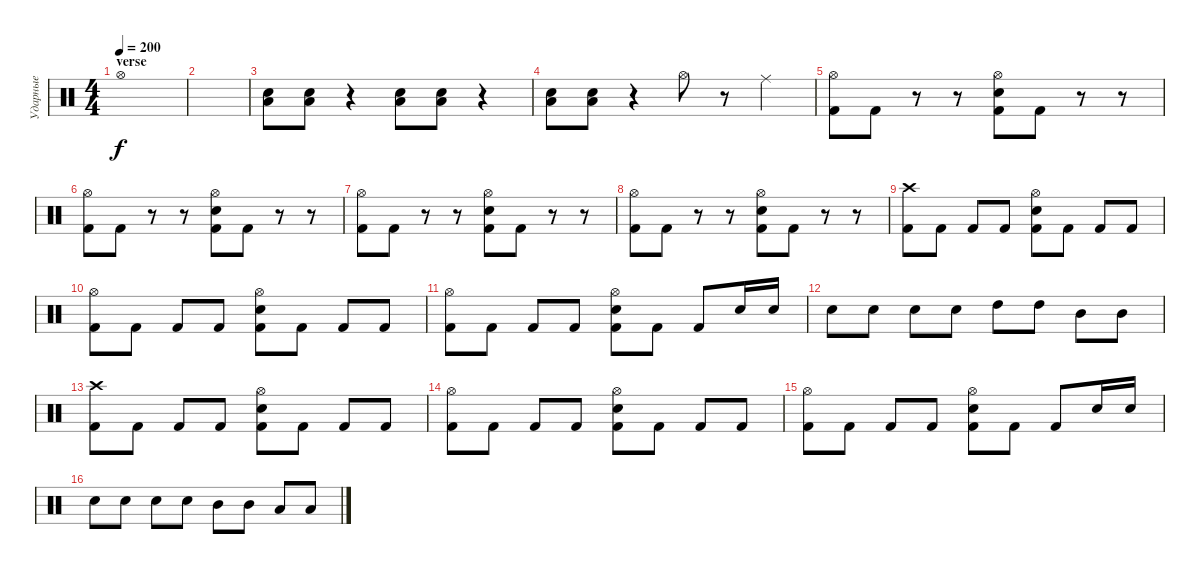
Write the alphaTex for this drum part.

\track ("Ударные" "Ударные") {instrument percussion}
\staff {score}
\articulation defaults
\ts (4 4)
\section ("" "verse")
\tempo 200
\clef neutral
\ks c "Hi-Hat (open)".1{dy f}
|
|
("Electric Snare (hit)" "Low Tom (hit)").8 ("Electric Snare (hit)" "Low Tom (hit)").8 r.4 ("Electric Snare (hit)" "Low Tom (hit)").8 ("Electric Snare (hit)" "Low Tom (hit)").8 r.4 |
("Electric Snare (hit)" "Low Tom (hit)").8 ("Electric Snare (hit)" "Low Tom (hit)").8 r.4 "Hi-Hat (open)".8 r.8 "Ride (middle)".4 |
("Hi-Hat (open)" "Kick (hit) 2").8 "Kick (hit) 2".8 r.8 r.8 ("Hi-Hat (open)" "Electric Snare (hit)" "Kick (hit) 2").8 "Kick (hit) 2".8 r.8 r.8 |
("Hi-Hat (open)" "Kick (hit) 2").8 "Kick (hit) 2".8 r.8 r.8 ("Hi-Hat (open)" "Electric Snare (hit)" "Kick (hit) 2").8 "Kick (hit) 2".8 r.8 r.8 |
("Hi-Hat (open)" "Kick (hit) 2").8 "Kick (hit) 2".8 r.8 r.8 ("Hi-Hat (open)" "Electric Snare (hit)" "Kick (hit) 2").8 "Kick (hit) 2".8 r.8 r.8 |
("Hi-Hat (open)" "Kick (hit) 2").8 "Kick (hit) 2".8 r.8 r.8 ("Hi-Hat (open)" "Electric Snare (hit)" "Kick (hit) 2").8 "Kick (hit) 2".8 r.8 r.8 |
("Crash high (hit)" "Kick (hit) 2").8 "Kick (hit) 2".8 "Kick (hit) 2".8 "Kick (hit) 2".8 ("Hi-Hat (open)" "Electric Snare (hit)" "Kick (hit) 2").8 "Kick (hit) 2".8 "Kick (hit) 2".8 "Kick (hit) 2".8 |
("Hi-Hat (open)" "Kick (hit) 2").8 "Kick (hit) 2".8 "Kick (hit) 2".8 "Kick (hit) 2".8 ("Hi-Hat (open)" "Electric Snare (hit)" "Kick (hit) 2").8 "Kick (hit) 2".8 "Kick (hit) 2".8 "Kick (hit) 2".8 |
("Hi-Hat (open)" "Kick (hit) 2").8 "Kick (hit) 2".8 "Kick (hit) 2".8 "Kick (hit) 2".8 ("Hi-Hat (open)" "Electric Snare (hit)" "Kick (hit) 2").8 "Kick (hit) 2".8 "Kick (hit) 2".8 "Electric Snare (hit)".16 "Electric Snare (hit)".16 |
"Electric Snare (hit)".8 "Electric Snare (hit)".8 "Electric Snare (hit)".8 "Electric Snare (hit)".8 "High Tom (hit)".8 "High Tom (hit)".8 "Mid Tom (hit)".8 "Mid Tom (hit)".8 |
("Crash high (hit)" "Kick (hit) 2").8 "Kick (hit) 2".8 "Kick (hit) 2".8 "Kick (hit) 2".8 ("Hi-Hat (open)" "Electric Snare (hit)" "Kick (hit) 2").8 "Kick (hit) 2".8 "Kick (hit) 2".8 "Kick (hit) 2".8 |
("Hi-Hat (open)" "Kick (hit) 2").8 "Kick (hit) 2".8 "Kick (hit) 2".8 "Kick (hit) 2".8 ("Hi-Hat (open)" "Electric Snare (hit)" "Kick (hit) 2").8 "Kick (hit) 2".8 "Kick (hit) 2".8 "Kick (hit) 2".8 |
("Hi-Hat (open)" "Kick (hit) 2").8 "Kick (hit) 2".8 "Kick (hit) 2".8 "Kick (hit) 2".8 ("Hi-Hat (open)" "Electric Snare (hit)" "Kick (hit) 2").8 "Kick (hit) 2".8 "Kick (hit) 2".8 "Electric Snare (hit)".16 "Electric Snare (hit)".16 |
"Electric Snare (hit)".8 "Electric Snare (hit)".8 "Electric Snare (hit)".8 "Electric Snare (hit)".8 "Mid Tom (hit)".8 "Mid Tom (hit)".8 "Low Tom (hit)".8 "Low Tom (hit)".8
